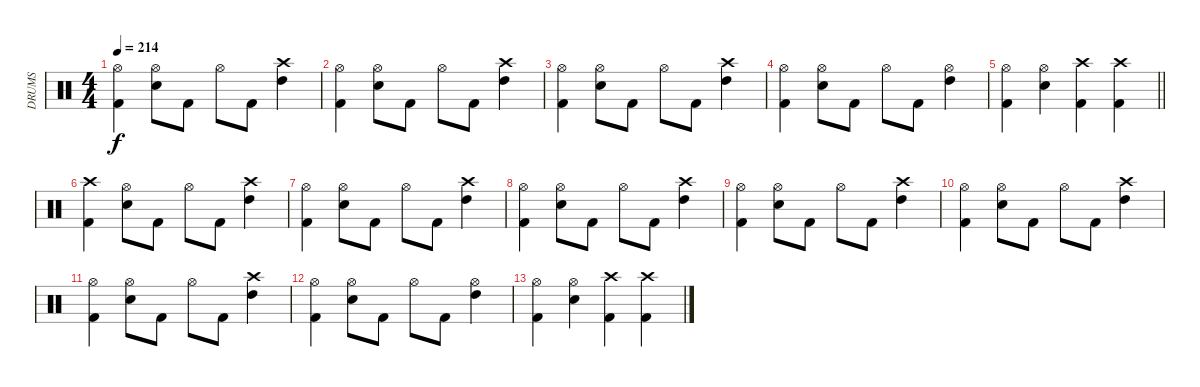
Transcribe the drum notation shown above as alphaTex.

\track ("DRUMS" "DRUMS") {instrument percussion}
\staff {score}
\articulation defaults
\ts (4 4)
\tempo 214
\clef neutral
\ks c
("Hi-Hat (open)" "Kick (hit) 2").4{dy f} ("Hi-Hat (open)" "Snare (hit) 2").8 "Kick (hit) 2".8 "Hi-Hat (open)".8 "Kick (hit) 2".8 ("Crash high (hit)" "High Tom (hit)").4 |
("Hi-Hat (open)" "Kick (hit) 2").4 ("Hi-Hat (open)" "Snare (hit) 2").8 "Kick (hit) 2".8 "Hi-Hat (open)".8 "Kick (hit) 2".8 ("Crash high (hit)" "High Tom (hit)").4 |
("Hi-Hat (open)" "Kick (hit) 2").4 ("Hi-Hat (open)" "Snare (hit) 2").8 "Kick (hit) 2".8 "Hi-Hat (open)".8 "Kick (hit) 2".8 ("Crash high (hit)" "High Tom (hit)").4 |
("Hi-Hat (open)" "Kick (hit) 2").4 ("Hi-Hat (open)" "Snare (hit) 2").8 "Kick (hit) 2".8 "Hi-Hat (open)".8 "Kick (hit) 2".8 ("Hi-Hat (open)" "High Tom (hit)").4 |
\barLineRight lightlight
("Hi-Hat (open)" "Kick (hit) 2").4 ("Hi-Hat (open)" "Snare (hit) 2").4 ("Crash high (hit)" "Kick (hit) 2").4 ("Crash high (hit)" "Kick (hit) 2").4 |
("Crash high (hit)" "Kick (hit) 2").4 ("Hi-Hat (open)" "Snare (hit) 2").8 "Kick (hit) 2".8 "Hi-Hat (open)".8 "Kick (hit) 2".8 ("Crash high (hit)" "High Tom (hit)").4 |
("Hi-Hat (open)" "Kick (hit) 2").4 ("Hi-Hat (open)" "Snare (hit) 2").8 "Kick (hit) 2".8 "Hi-Hat (open)".8 "Kick (hit) 2".8 ("Crash high (hit)" "High Tom (hit)").4 |
("Hi-Hat (open)" "Kick (hit) 2").4 ("Hi-Hat (open)" "Snare (hit) 2").8 "Kick (hit) 2".8 "Hi-Hat (open)".8 "Kick (hit) 2".8 ("Crash high (hit)" "High Tom (hit)").4 |
("Hi-Hat (open)" "Kick (hit) 2").4 ("Hi-Hat (open)" "Snare (hit) 2").8 "Kick (hit) 2".8 "Hi-Hat (open)".8 "Kick (hit) 2".8 ("Crash high (hit)" "High Tom (hit)").4 |
("Hi-Hat (open)" "Kick (hit) 2").4 ("Hi-Hat (open)" "Snare (hit) 2").8 "Kick (hit) 2".8 "Hi-Hat (open)".8 "Kick (hit) 2".8 ("Crash high (hit)" "High Tom (hit)").4 |
("Hi-Hat (open)" "Kick (hit) 2").4 ("Hi-Hat (open)" "Snare (hit) 2").8 "Kick (hit) 2".8 "Hi-Hat (open)".8 "Kick (hit) 2".8 ("Crash high (hit)" "High Tom (hit)").4 |
("Hi-Hat (open)" "Kick (hit) 2").4 ("Hi-Hat (open)" "Snare (hit) 2").8 "Kick (hit) 2".8 "Hi-Hat (open)".8 "Kick (hit) 2".8 ("Hi-Hat (open)" "High Tom (hit)").4 |
("Hi-Hat (open)" "Kick (hit) 2").4 ("Hi-Hat (open)" "Snare (hit) 2").4 ("Crash high (hit)" "Kick (hit) 2").4 ("Crash high (hit)" "Kick (hit) 2").4
